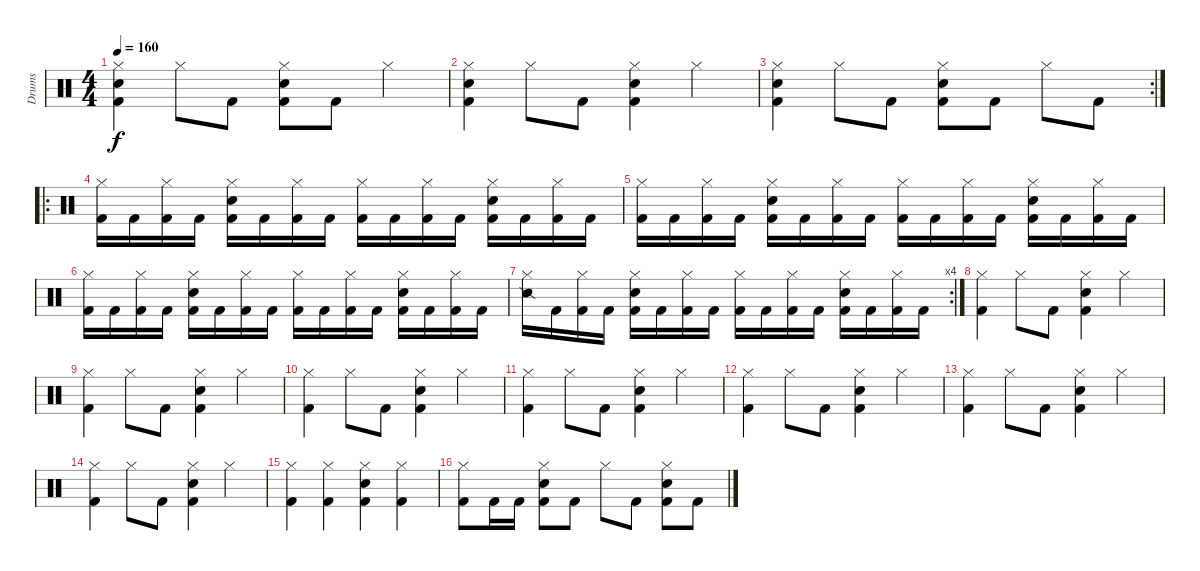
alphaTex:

\track ("Drums" "Drums") {instrument percussion}
\staff {score}
\articulation defaults
\ts (4 4)
\tempo 160
\clef neutral
\ks c
("Kick (hit) 2" "Snare (hit) 2" "Hi-Hat (closed)").4{dy f} "Hi-Hat (closed)".8 "Kick (hit) 2".8 ("Kick (hit) 2" "Snare (hit) 2" "Hi-Hat (closed)").8 "Kick (hit) 2".8 "Hi-Hat (closed)".4 |
("Kick (hit) 2" "Snare (hit) 2" "Hi-Hat (closed)").4 "Hi-Hat (closed)".8 "Kick (hit) 2".8 ("Kick (hit) 2" "Snare (hit) 2" "Hi-Hat (closed)").4 "Hi-Hat (closed)".4 |
\rc 2
("Kick (hit) 2" "Snare (hit) 2" "Hi-Hat (closed)").4 "Hi-Hat (closed)".8 "Kick (hit) 2".8 ("Kick (hit) 2" "Snare (hit) 2" "Hi-Hat (closed)").8 "Kick (hit) 2".8 "Hi-Hat (closed)".8 "Kick (hit) 2".8 |
\ro
("Kick (hit) 2" "Hi-Hat (closed)").16 "Kick (hit) 2".16 ("Kick (hit) 2" "Hi-Hat (closed)").16 "Kick (hit) 2".16 ("Kick (hit) 2" "Snare (hit) 2" "Hi-Hat (closed)").16 "Kick (hit) 2".16 ("Kick (hit) 2" "Hi-Hat (closed)").16 "Kick (hit) 2".16 ("Kick (hit) 2" "Hi-Hat (closed)").16 "Kick (hit) 2".16 ("Kick (hit) 2" "Hi-Hat (closed)").16 "Kick (hit) 2".16 ("Kick (hit) 2" "Snare (hit) 2" "Hi-Hat (closed)").16 "Kick (hit) 2".16 ("Kick (hit) 2" "Hi-Hat (closed)").16 "Kick (hit) 2".16 |
("Kick (hit) 2" "Hi-Hat (closed)").16 "Kick (hit) 2".16 ("Kick (hit) 2" "Hi-Hat (closed)").16 "Kick (hit) 2".16 ("Kick (hit) 2" "Snare (hit) 2" "Hi-Hat (closed)").16 "Kick (hit) 2".16 ("Kick (hit) 2" "Hi-Hat (closed)").16 "Kick (hit) 2".16 ("Kick (hit) 2" "Hi-Hat (closed)").16 "Kick (hit) 2".16 ("Kick (hit) 2" "Hi-Hat (closed)").16 "Kick (hit) 2".16 ("Kick (hit) 2" "Snare (hit) 2" "Hi-Hat (closed)").16 "Kick (hit) 2".16 ("Kick (hit) 2" "Hi-Hat (closed)").16 "Kick (hit) 2".16 |
("Kick (hit) 2" "Hi-Hat (closed)").16 "Kick (hit) 2".16 ("Kick (hit) 2" "Hi-Hat (closed)").16 "Kick (hit) 2".16 ("Kick (hit) 2" "Snare (hit) 2" "Hi-Hat (closed)").16 "Kick (hit) 2".16 ("Kick (hit) 2" "Hi-Hat (closed)").16 "Kick (hit) 2".16 ("Kick (hit) 2" "Hi-Hat (closed)").16 "Kick (hit) 2".16 ("Kick (hit) 2" "Hi-Hat (closed)").16 "Kick (hit) 2".16 ("Kick (hit) 2" "Snare (hit) 2" "Hi-Hat (closed)").16 "Kick (hit) 2".16 ("Kick (hit) 2" "Hi-Hat (closed)").16 "Kick (hit) 2".16 |
\rc 4
("Snare (side stick) 2" "Hi-Hat (closed)").16 "Kick (hit) 2".16 ("Kick (hit) 2" "Hi-Hat (closed)").16 "Kick (hit) 2".16 ("Kick (hit) 2" "Snare (hit) 2" "Hi-Hat (closed)").16 "Kick (hit) 2".16 ("Kick (hit) 2" "Hi-Hat (closed)").16 "Kick (hit) 2".16 ("Kick (hit) 2" "Hi-Hat (closed)").16 "Kick (hit) 2".16 ("Kick (hit) 2" "Hi-Hat (closed)").16 "Kick (hit) 2".16 ("Kick (hit) 2" "Snare (hit) 2" "Hi-Hat (closed)").16 "Kick (hit) 2".16 ("Kick (hit) 2" "Hi-Hat (closed)").16 "Kick (hit) 2".16 |
("Kick (hit) 2" "Hi-Hat (closed)").4 "Hi-Hat (closed)".8 "Kick (hit) 2".8 ("Kick (hit) 2" "Snare (hit) 2" "Hi-Hat (closed)").4 "Hi-Hat (closed)".4 |
("Kick (hit) 2" "Hi-Hat (closed)").4 "Hi-Hat (closed)".8 "Kick (hit) 2".8 ("Kick (hit) 2" "Snare (hit) 2" "Hi-Hat (closed)").4 "Hi-Hat (closed)".4 |
("Kick (hit) 2" "Hi-Hat (closed)").4 "Hi-Hat (closed)".8 "Kick (hit) 2".8 ("Kick (hit) 2" "Snare (hit) 2" "Hi-Hat (closed)").4 "Hi-Hat (closed)".4 |
("Kick (hit) 2" "Hi-Hat (closed)").4 "Hi-Hat (closed)".8 "Kick (hit) 2".8 ("Kick (hit) 2" "Snare (hit) 2" "Hi-Hat (closed)").4 "Hi-Hat (closed)".4 |
("Kick (hit) 2" "Hi-Hat (closed)").4 "Hi-Hat (closed)".8 "Kick (hit) 2".8 ("Kick (hit) 2" "Snare (hit) 2" "Hi-Hat (closed)").4 "Hi-Hat (closed)".4 |
("Kick (hit) 2" "Hi-Hat (closed)").4 "Hi-Hat (closed)".8 "Kick (hit) 2".8 ("Kick (hit) 2" "Snare (hit) 2" "Hi-Hat (closed)").4 "Hi-Hat (closed)".4 |
("Kick (hit) 2" "Hi-Hat (closed)").4 "Hi-Hat (closed)".8 "Kick (hit) 2".8 ("Kick (hit) 2" "Snare (hit) 2" "Hi-Hat (closed)").4 "Hi-Hat (closed)".4 |
("Kick (hit) 2" "Hi-Hat (closed)").4 ("Kick (hit) 2" "Hi-Hat (closed)").4 ("Kick (hit) 2" "Snare (hit) 2" "Hi-Hat (closed)").4 ("Kick (hit) 2" "Hi-Hat (closed)").4 |
("Kick (hit) 2" "Hi-Hat (closed)").8 "Kick (hit) 2".16 "Kick (hit) 2".16 ("Kick (hit) 2" "Snare (hit) 2" "Hi-Hat (closed)").8 "Kick (hit) 2".8 "Hi-Hat (closed)".8 "Kick (hit) 2".8 ("Kick (hit) 2" "Snare (hit) 2" "Hi-Hat (closed)").8 "Kick (hit) 2".8
